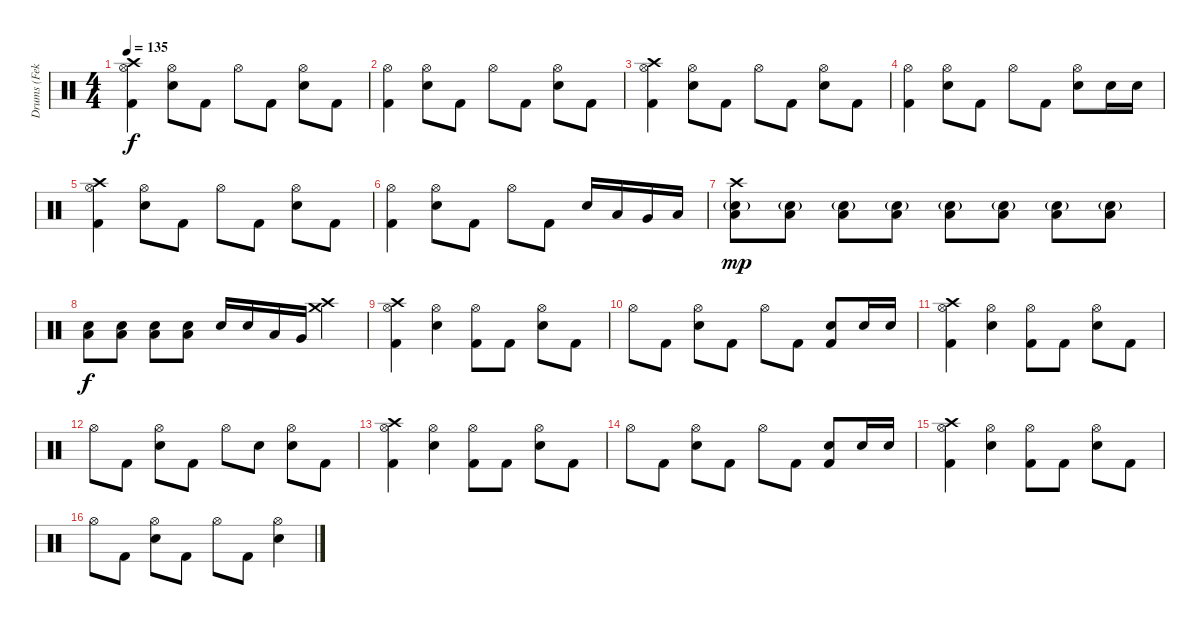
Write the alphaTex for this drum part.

\track ("Drums (Feka)" "Drums (Fek") {instrument percussion}
\staff {score}
\articulation defaults
\ts (4 4)
\tempo 135
\clef neutral
\ks c
("Crash high (hit)" "Hi-Hat (open)" "Kick (hit) 2").4{dy f} ("Hi-Hat (open)" "Snare (hit) 2").8 "Kick (hit) 2".8 "Hi-Hat (open)".8 "Kick (hit) 2".8 ("Hi-Hat (open)" "Snare (hit) 2").8 "Kick (hit) 2".8 |
("Hi-Hat (open)" "Kick (hit) 2").4 ("Hi-Hat (open)" "Snare (hit) 2").8 "Kick (hit) 2".8 "Hi-Hat (open)".8 "Kick (hit) 2".8 ("Hi-Hat (open)" "Snare (hit) 2").8 "Kick (hit) 2".8 |
("Crash high (hit)" "Hi-Hat (open)" "Kick (hit) 2").4 ("Hi-Hat (open)" "Snare (hit) 2").8 "Kick (hit) 2".8 "Hi-Hat (open)".8 "Kick (hit) 2".8 ("Hi-Hat (open)" "Snare (hit) 2").8 "Kick (hit) 2".8 |
("Hi-Hat (open)" "Kick (hit) 2").4 ("Hi-Hat (open)" "Snare (hit) 2").8 "Kick (hit) 2".8 "Hi-Hat (open)".8 "Kick (hit) 2".8 ("Hi-Hat (open)" "Snare (hit) 2").8 "Snare (hit) 2".16 "Snare (hit) 2".16 |
("Crash high (hit)" "Hi-Hat (open)" "Kick (hit) 2").4 ("Hi-Hat (open)" "Snare (hit) 2").8 "Kick (hit) 2".8 "Hi-Hat (open)".8 "Kick (hit) 2".8 ("Hi-Hat (open)" "Snare (hit) 2").8 "Kick (hit) 2".8 |
("Hi-Hat (open)" "Kick (hit) 2").4 ("Hi-Hat (open)" "Snare (hit) 2").8 "Kick (hit) 2".8 "Hi-Hat (open)".8 "Kick (hit) 2".8 "Snare (hit) 2".16 "Low Tom (hit)".16 "Very Low Tom (hit)".16 "Low Floor Tom (hit)".16 |
("Crash high (hit)" "Low Floor Tom (hit)" "Snare (hit) 2"{g}).8{dy mp} ("Low Floor Tom (hit)" "Snare (hit) 2"{g}).8 ("Low Floor Tom (hit)" "Snare (hit) 2"{g}).8 ("Low Floor Tom (hit)" "Snare (hit) 2"{g}).8 ("Low Floor Tom (hit)" "Snare (hit) 2"{g}).8 ("Low Floor Tom (hit)" "Snare (hit) 2"{g}).8 ("Low Floor Tom (hit)" "Snare (hit) 2"{g}).8 ("Low Floor Tom (hit)" "Snare (hit) 2"{g}).8 |
("Low Floor Tom (hit)" "Snare (hit) 2").8{dy f} ("Low Floor Tom (hit)" "Snare (hit) 2").8 ("Low Floor Tom (hit)" "Snare (hit) 2").8 ("Low Floor Tom (hit)" "Snare (hit) 2").8 "Snare (hit) 2".16 "Snare (hit) 2".16 "Low Tom (hit)".16 "Very Low Tom (hit)".16 ("Crash high (hit)" "Crash medium (hit)").4 |
("Crash high (hit)" "Hi-Hat (open)" "Kick (hit) 2").4 ("Hi-Hat (open)" "Snare (hit) 2").4 ("Hi-Hat (open)" "Kick (hit) 2").8 "Kick (hit) 2".8 ("Hi-Hat (open)" "Snare (hit) 2").8 "Kick (hit) 2".8 |
"Hi-Hat (open)".8 "Kick (hit) 2".8 ("Hi-Hat (open)" "Snare (hit) 2").8 "Kick (hit) 2".8 "Hi-Hat (open)".8 "Kick (hit) 2".8 ("Kick (hit) 2" "Snare (hit) 2").8 "Snare (hit) 2".16 "Snare (hit) 2".16 |
("Crash high (hit)" "Hi-Hat (open)" "Kick (hit) 2").4 ("Hi-Hat (open)" "Snare (hit) 2").4 ("Hi-Hat (open)" "Kick (hit) 2").8 "Kick (hit) 2".8 ("Hi-Hat (open)" "Snare (hit) 2").8 "Kick (hit) 2".8 |
"Hi-Hat (open)".8 "Kick (hit) 2".8 ("Hi-Hat (open)" "Snare (hit) 2").8 "Kick (hit) 2".8 "Hi-Hat (open)".8 "Snare (hit) 2".8 ("Hi-Hat (open)" "Snare (hit) 2").8 "Kick (hit) 2".8 |
("Crash high (hit)" "Hi-Hat (open)" "Kick (hit) 2").4 ("Hi-Hat (open)" "Snare (hit) 2").4 ("Hi-Hat (open)" "Kick (hit) 2").8 "Kick (hit) 2".8 ("Hi-Hat (open)" "Snare (hit) 2").8 "Kick (hit) 2".8 |
"Hi-Hat (open)".8 "Kick (hit) 2".8 ("Hi-Hat (open)" "Snare (hit) 2").8 "Kick (hit) 2".8 "Hi-Hat (open)".8 "Kick (hit) 2".8 ("Kick (hit) 2" "Snare (hit) 2").8 "Snare (hit) 2".16 "Snare (hit) 2".16 |
("Crash high (hit)" "Hi-Hat (open)" "Kick (hit) 2").4 ("Hi-Hat (open)" "Snare (hit) 2").4 ("Hi-Hat (open)" "Kick (hit) 2").8 "Kick (hit) 2".8 ("Hi-Hat (open)" "Snare (hit) 2").8 "Kick (hit) 2".8 |
"Hi-Hat (open)".8 "Kick (hit) 2".8 ("Hi-Hat (open)" "Snare (hit) 2").8 "Kick (hit) 2".8 "Hi-Hat (open)".8 "Kick (hit) 2".8 ("Hi-Hat (open)" "Snare (hit) 2").4
